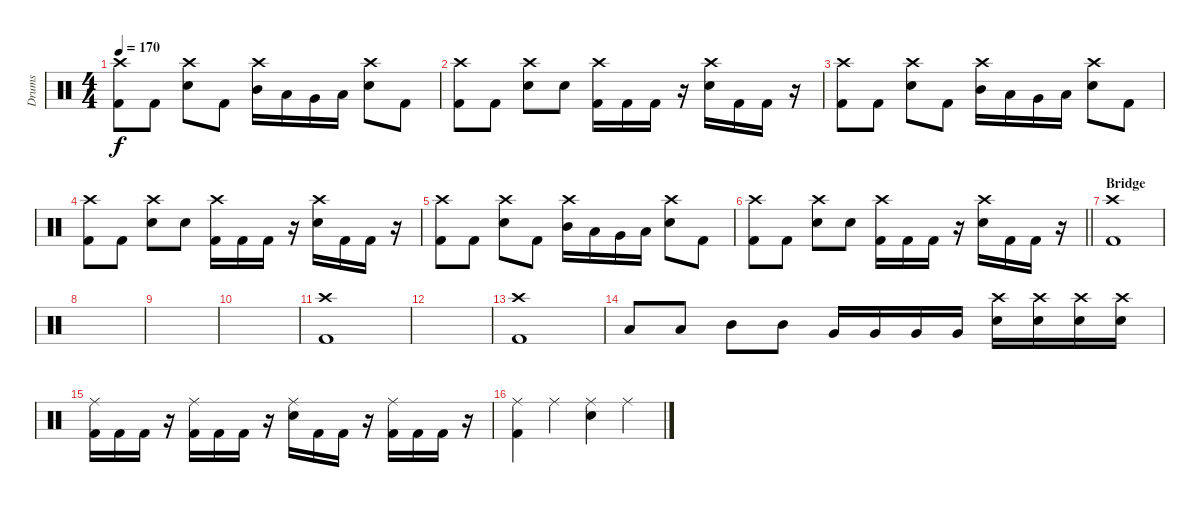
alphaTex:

\track ("Drums" "Drums") {instrument percussion}
\staff {score}
\articulation defaults
\ts (4 4)
\tempo 170
\clef neutral
\ks c
("Crash high (hit)" "Kick (hit) 2").8{dy f} "Kick (hit) 2".8 ("Crash high (hit)" "Electric Snare (hit)").8 "Kick (hit) 2".8 ("Crash high (hit)" "Mid Tom (hit)").16 "Low Tom (hit)".16 "Very Low Tom (hit)".16 "Low Tom (hit)".16 ("Crash high (hit)" "Electric Snare (hit)").8 "Kick (hit) 2".8 |
("Crash high (hit)" "Kick (hit) 2").8 "Kick (hit) 2".8 ("Crash high (hit)" "Electric Snare (hit)").8 "Electric Snare (hit)".8 ("Crash high (hit)" "Kick (hit) 2").16 "Kick (hit) 2".16 "Kick (hit) 2".16 r.16 ("Crash high (hit)" "Electric Snare (hit)").16 "Kick (hit) 2".16 "Kick (hit) 2".16 r.16 |
("Crash high (hit)" "Kick (hit) 2").8 "Kick (hit) 2".8 ("Crash high (hit)" "Electric Snare (hit)").8 "Kick (hit) 2".8 ("Crash high (hit)" "Mid Tom (hit)").16 "Low Tom (hit)".16 "Very Low Tom (hit)".16 "Low Tom (hit)".16 ("Crash high (hit)" "Electric Snare (hit)").8 "Kick (hit) 2".8 |
("Crash high (hit)" "Kick (hit) 2").8 "Kick (hit) 2".8 ("Crash high (hit)" "Electric Snare (hit)").8 "Electric Snare (hit)".8 ("Crash high (hit)" "Kick (hit) 2").16 "Kick (hit) 2".16 "Kick (hit) 2".16 r.16 ("Crash high (hit)" "Electric Snare (hit)").16 "Kick (hit) 2".16 "Kick (hit) 2".16 r.16 |
("Crash high (hit)" "Kick (hit) 2").8 "Kick (hit) 2".8 ("Crash high (hit)" "Electric Snare (hit)").8 "Kick (hit) 2".8 ("Crash high (hit)" "Mid Tom (hit)").16 "Low Tom (hit)".16 "Very Low Tom (hit)".16 "Low Tom (hit)".16 ("Crash high (hit)" "Electric Snare (hit)").8 "Kick (hit) 2".8 |
\barLineRight lightlight
("Crash high (hit)" "Kick (hit) 2").8 "Kick (hit) 2".8 ("Crash high (hit)" "Electric Snare (hit)").8 "Electric Snare (hit)".8 ("Crash high (hit)" "Kick (hit) 2").16 "Kick (hit) 2".16 "Kick (hit) 2".16 r.16 ("Crash high (hit)" "Electric Snare (hit)").16 "Kick (hit) 2".16 "Kick (hit) 2".16 r.16 |
\section ("" "Bridge")
("Crash high (hit)" "Kick (hit) 2").1 |
|
|
|
("Kick (hit) 2" "Crash high (hit)").1 |
|
("Kick (hit) 2" "Crash high (hit)").1 |
"Low Tom (hit)".8 "Low Tom (hit)".8 "Mid Tom (hit)".8 "Mid Tom (hit)".8 "Very Low Tom (hit)".16 "Very Low Tom (hit)".16 "Very Low Tom (hit)".16 "Very Low Tom (hit)".16 ("Crash high (hit)" "Electric Snare (hit)").16 ("Crash high (hit)" "Electric Snare (hit)").16 ("Crash high (hit)" "Electric Snare (hit)").16 ("Crash high (hit)" "Electric Snare (hit)").16 |
("Ride (middle)" "Kick (hit) 2").16 "Kick (hit) 2".16 "Kick (hit) 2".16 r.16 ("Ride (middle)" "Kick (hit) 2").16 "Kick (hit) 2".16 "Kick (hit) 2".16 r.16 ("Ride (middle)" "Electric Snare (hit)").16 "Kick (hit) 2".16 "Kick (hit) 2".16 r.16 ("Ride (middle)" "Kick (hit) 2").16 "Kick (hit) 2".16 "Kick (hit) 2".16 r.16 |
("Ride (middle)" "Kick (hit) 2").4 "Ride (middle)".4 ("Ride (middle)" "Electric Snare (hit)").4 "Ride (middle)".4
